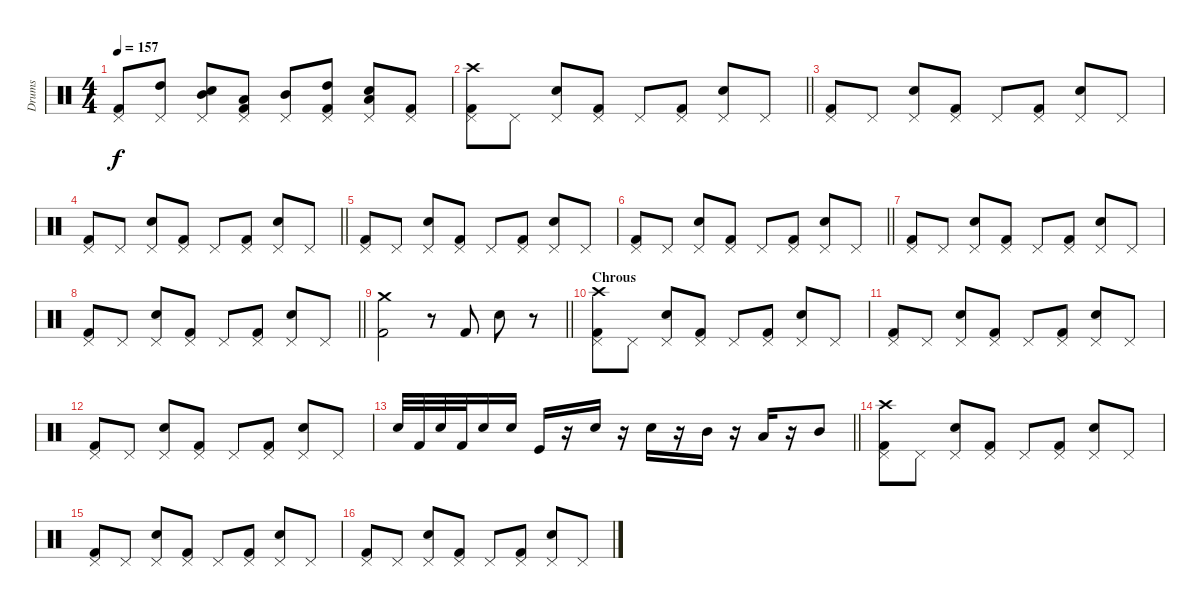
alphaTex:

\track ("Drums" "Drums") {instrument percussion}
\staff {score}
\articulation defaults
\ts (4 4)
\tempo 157
\clef neutral
\ks c
("Pedal Hi-Hat (hit)" "Kick (hit) 2").8{dy f} ("Pedal Hi-Hat (hit)" "High Tom (hit)").8 ("Pedal Hi-Hat (hit)" "Mid Tom (hit)" "Snare (hit) 2").8 ("Pedal Hi-Hat (hit)" "Kick (hit) 2" "Low Tom (hit)").8 ("Pedal Hi-Hat (hit)" "Mid Tom (hit)").8 ("Pedal Hi-Hat (hit)" "High Tom (hit)" "Kick (hit) 2").8 ("Pedal Hi-Hat (hit)" "Low Tom (hit)" "Snare (hit) 2").8 ("Pedal Hi-Hat (hit)" "Kick (hit) 2").8 |
\barLineRight lightlight
("Crash high (hit)" "Pedal Hi-Hat (hit)" "Kick (hit) 2").8 "Pedal Hi-Hat (hit)".8 ("Pedal Hi-Hat (hit)" "Snare (hit) 2").8 ("Pedal Hi-Hat (hit)" "Kick (hit) 2").8 "Pedal Hi-Hat (hit)".8 ("Pedal Hi-Hat (hit)" "Kick (hit) 2").8 ("Pedal Hi-Hat (hit)" "Snare (hit) 2").8 "Pedal Hi-Hat (hit)".8 |
("Pedal Hi-Hat (hit)" "Kick (hit) 2").8 "Pedal Hi-Hat (hit)".8 ("Pedal Hi-Hat (hit)" "Snare (hit) 2").8 ("Pedal Hi-Hat (hit)" "Kick (hit) 2").8 "Pedal Hi-Hat (hit)".8 ("Pedal Hi-Hat (hit)" "Kick (hit) 2").8 ("Pedal Hi-Hat (hit)" "Snare (hit) 2").8 "Pedal Hi-Hat (hit)".8 |
\barLineRight lightlight
("Pedal Hi-Hat (hit)" "Kick (hit) 2").8 "Pedal Hi-Hat (hit)".8 ("Pedal Hi-Hat (hit)" "Snare (hit) 2").8 ("Pedal Hi-Hat (hit)" "Kick (hit) 2").8 "Pedal Hi-Hat (hit)".8 ("Pedal Hi-Hat (hit)" "Kick (hit) 2").8 ("Pedal Hi-Hat (hit)" "Snare (hit) 2").8 "Pedal Hi-Hat (hit)".8 |
("Pedal Hi-Hat (hit)" "Kick (hit) 2").8 "Pedal Hi-Hat (hit)".8 ("Pedal Hi-Hat (hit)" "Snare (hit) 2").8 ("Pedal Hi-Hat (hit)" "Kick (hit) 2").8 "Pedal Hi-Hat (hit)".8 ("Pedal Hi-Hat (hit)" "Kick (hit) 2").8 ("Pedal Hi-Hat (hit)" "Snare (hit) 2").8 "Pedal Hi-Hat (hit)".8 |
\barLineRight lightlight
("Pedal Hi-Hat (hit)" "Kick (hit) 2").8 "Pedal Hi-Hat (hit)".8 ("Pedal Hi-Hat (hit)" "Snare (hit) 2").8 ("Pedal Hi-Hat (hit)" "Kick (hit) 2").8 "Pedal Hi-Hat (hit)".8 ("Pedal Hi-Hat (hit)" "Kick (hit) 2").8 ("Pedal Hi-Hat (hit)" "Snare (hit) 2").8 "Pedal Hi-Hat (hit)".8 |
("Pedal Hi-Hat (hit)" "Kick (hit) 2").8 "Pedal Hi-Hat (hit)".8 ("Pedal Hi-Hat (hit)" "Snare (hit) 2").8 ("Pedal Hi-Hat (hit)" "Kick (hit) 2").8 "Pedal Hi-Hat (hit)".8 ("Pedal Hi-Hat (hit)" "Kick (hit) 2").8 ("Pedal Hi-Hat (hit)" "Snare (hit) 2").8 "Pedal Hi-Hat (hit)".8 |
\barLineRight lightlight
("Pedal Hi-Hat (hit)" "Kick (hit) 2").8 "Pedal Hi-Hat (hit)".8 ("Pedal Hi-Hat (hit)" "Snare (hit) 2").8 ("Pedal Hi-Hat (hit)" "Kick (hit) 2").8 "Pedal Hi-Hat (hit)".8 ("Pedal Hi-Hat (hit)" "Kick (hit) 2").8 ("Pedal Hi-Hat (hit)" "Snare (hit) 2").8 "Pedal Hi-Hat (hit)".8 |
\barLineRight lightlight
("Crash medium (hit)" "Kick (hit) 2").2 r.8 "Kick (hit) 2".8 "Snare (hit) 2".8 r.8 |
\section ("" "Chrous")
("Crash high (hit)" "Pedal Hi-Hat (hit)" "Kick (hit) 2").8 "Pedal Hi-Hat (hit)".8 ("Pedal Hi-Hat (hit)" "Snare (hit) 2").8 ("Pedal Hi-Hat (hit)" "Kick (hit) 2").8 "Pedal Hi-Hat (hit)".8 ("Pedal Hi-Hat (hit)" "Kick (hit) 2").8 ("Pedal Hi-Hat (hit)" "Snare (hit) 2").8 "Pedal Hi-Hat (hit)".8 |
("Pedal Hi-Hat (hit)" "Kick (hit) 2").8 "Pedal Hi-Hat (hit)".8 ("Pedal Hi-Hat (hit)" "Snare (hit) 2").8 ("Pedal Hi-Hat (hit)" "Kick (hit) 2").8 "Pedal Hi-Hat (hit)".8 ("Pedal Hi-Hat (hit)" "Kick (hit) 2").8 ("Pedal Hi-Hat (hit)" "Snare (hit) 2").8 "Pedal Hi-Hat (hit)".8 |
("Pedal Hi-Hat (hit)" "Kick (hit) 2").8 "Pedal Hi-Hat (hit)".8 ("Pedal Hi-Hat (hit)" "Snare (hit) 2").8 ("Pedal Hi-Hat (hit)" "Kick (hit) 2").8 "Pedal Hi-Hat (hit)".8 ("Pedal Hi-Hat (hit)" "Kick (hit) 2").8 ("Pedal Hi-Hat (hit)" "Snare (hit) 2").8 "Pedal Hi-Hat (hit)".8 |
\barLineRight lightlight "Snare (hit) 2".32 "Kick (hit) 2".32 "Snare (hit) 2".32 "Kick (hit) 2".32 "Snare (hit) 2".16 "Snare (hit) 2".16 "Kick (hit)".16
r.16 "Snare (hit) 2".16 r.16 "Electric Snare (hit)".16 r.16 "Mid Tom (hit)".16 r.16 "Low Tom (hit)".16 r.16 "Mid Tom (hit)".8 |
("Crash high (hit)" "Pedal Hi-Hat (hit)" "Kick (hit) 2").8 "Pedal Hi-Hat (hit)".8 ("Pedal Hi-Hat (hit)" "Snare (hit) 2").8 ("Pedal Hi-Hat (hit)" "Kick (hit) 2").8 "Pedal Hi-Hat (hit)".8 ("Pedal Hi-Hat (hit)" "Kick (hit) 2").8 ("Pedal Hi-Hat (hit)" "Snare (hit) 2").8 "Pedal Hi-Hat (hit)".8 |
("Pedal Hi-Hat (hit)" "Kick (hit) 2").8 "Pedal Hi-Hat (hit)".8 ("Pedal Hi-Hat (hit)" "Snare (hit) 2").8 ("Pedal Hi-Hat (hit)" "Kick (hit) 2").8 "Pedal Hi-Hat (hit)".8 ("Pedal Hi-Hat (hit)" "Kick (hit) 2").8 ("Pedal Hi-Hat (hit)" "Snare (hit) 2").8 "Pedal Hi-Hat (hit)".8 |
("Pedal Hi-Hat (hit)" "Kick (hit) 2").8 "Pedal Hi-Hat (hit)".8 ("Pedal Hi-Hat (hit)" "Snare (hit) 2").8 ("Pedal Hi-Hat (hit)" "Kick (hit) 2").8 "Pedal Hi-Hat (hit)".8 ("Pedal Hi-Hat (hit)" "Kick (hit) 2").8 ("Pedal Hi-Hat (hit)" "Snare (hit) 2").8 "Pedal Hi-Hat (hit)".8
